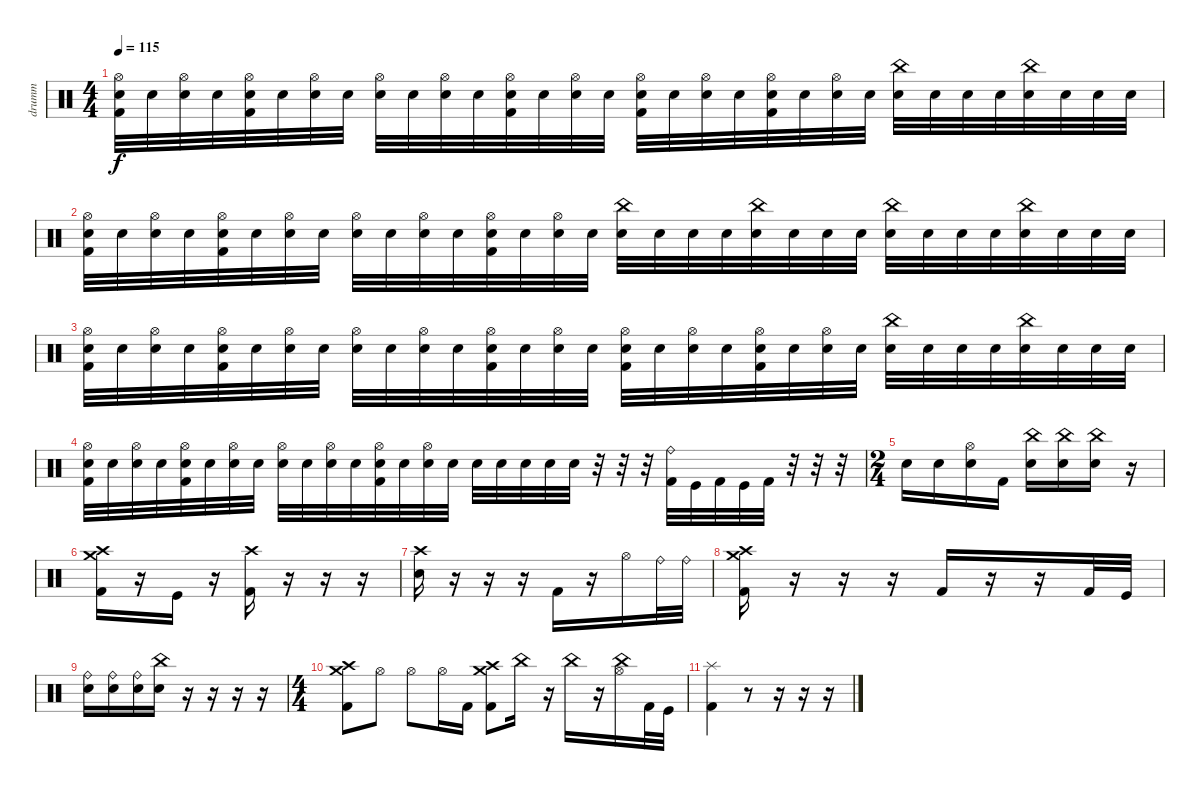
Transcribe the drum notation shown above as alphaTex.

\track ("drumm" "drumm") {instrument percussion}
\staff
\articulation defaults
\ts (4 4)
\tempo 115
\clef neutral
\ks c
("Electric Snare (hit)" "Hi-Hat (open)" "Kick (hit) 2").32{dy f} "Electric Snare (hit)".32 ("Electric Snare (hit)" "Hi-Hat (open)").32 "Electric Snare (hit)".32 ("Electric Snare (hit)" "Hi-Hat (open)" "Kick (hit) 2").32 "Electric Snare (hit)".32 ("Electric Snare (hit)" "Hi-Hat (open)").32 "Electric Snare (hit)".32 ("Electric Snare (hit)" "Hi-Hat (open)").32 "Electric Snare (hit)".32 ("Electric Snare (hit)" "Hi-Hat (open)").32 "Electric Snare (hit)".32 ("Electric Snare (hit)" "Hi-Hat (open)" "Kick (hit) 2").32 "Electric Snare (hit)".32 ("Electric Snare (hit)" "Hi-Hat (open)").32 "Electric Snare (hit)".32 ("Electric Snare (hit)" "Hi-Hat (open)" "Kick (hit) 2").32 "Electric Snare (hit)".32 ("Electric Snare (hit)" "Hi-Hat (open)").32 "Electric Snare (hit)".32 ("Electric Snare (hit)" "Hi-Hat (open)" "Kick (hit) 2").32 "Electric Snare (hit)".32 ("Electric Snare (hit)" "Hi-Hat (open)").32 "Electric Snare (hit)".32 ("Electric Snare (hit)" "China (hit)").32 "Electric Snare (hit)".32 "Electric Snare (hit)".32 "Electric Snare (hit)".32 ("Electric Snare (hit)" "China (hit)").32 "Electric Snare (hit)".32 "Electric Snare (hit)".32 "Electric Snare (hit)".32 |
("Electric Snare (hit)" "Hi-Hat (open)" "Kick (hit) 2").32 "Electric Snare (hit)".32 ("Electric Snare (hit)" "Hi-Hat (open)").32 "Electric Snare (hit)".32 ("Electric Snare (hit)" "Hi-Hat (open)" "Kick (hit) 2").32 "Electric Snare (hit)".32 ("Electric Snare (hit)" "Hi-Hat (open)").32 "Electric Snare (hit)".32 ("Electric Snare (hit)" "Hi-Hat (open)").32 "Electric Snare (hit)".32 ("Electric Snare (hit)" "Hi-Hat (open)").32 "Electric Snare (hit)".32 ("Electric Snare (hit)" "Hi-Hat (open)" "Kick (hit) 2").32 "Electric Snare (hit)".32 ("Electric Snare (hit)" "Hi-Hat (open)").32 "Electric Snare (hit)".32 ("Electric Snare (hit)" "China (hit)").32 "Electric Snare (hit)".32 "Electric Snare (hit)".32 "Electric Snare (hit)".32 ("Electric Snare (hit)" "China (hit)").32 "Electric Snare (hit)".32 "Electric Snare (hit)".32 "Electric Snare (hit)".32 ("Electric Snare (hit)" "China (hit)").32 "Electric Snare (hit)".32 "Electric Snare (hit)".32 "Electric Snare (hit)".32 ("Electric Snare (hit)" "China (hit)").32 "Electric Snare (hit)".32 "Electric Snare (hit)".32 "Electric Snare (hit)".32 |
("Electric Snare (hit)" "Hi-Hat (open)" "Kick (hit) 2").32 "Electric Snare (hit)".32 ("Electric Snare (hit)" "Hi-Hat (open)").32 "Electric Snare (hit)".32 ("Electric Snare (hit)" "Hi-Hat (open)" "Kick (hit) 2").32 "Electric Snare (hit)".32 ("Electric Snare (hit)" "Hi-Hat (open)").32 "Electric Snare (hit)".32 ("Electric Snare (hit)" "Hi-Hat (open)").32 "Electric Snare (hit)".32 ("Electric Snare (hit)" "Hi-Hat (open)").32 "Electric Snare (hit)".32 ("Electric Snare (hit)" "Hi-Hat (open)" "Kick (hit) 2").32 "Electric Snare (hit)".32 ("Electric Snare (hit)" "Hi-Hat (open)").32 "Electric Snare (hit)".32 ("Electric Snare (hit)" "Hi-Hat (open)" "Kick (hit) 2").32 "Electric Snare (hit)".32 ("Electric Snare (hit)" "Hi-Hat (open)").32 "Electric Snare (hit)".32 ("Electric Snare (hit)" "Hi-Hat (open)" "Kick (hit) 2").32 "Electric Snare (hit)".32 ("Electric Snare (hit)" "Hi-Hat (open)").32 "Electric Snare (hit)".32 ("Electric Snare (hit)" "China (hit)").32 "Electric Snare (hit)".32 "Electric Snare (hit)".32 "Electric Snare (hit)".32 ("Electric Snare (hit)" "China (hit)").32 "Electric Snare (hit)".32 "Electric Snare (hit)".32 "Electric Snare (hit)".32 |
("Electric Snare (hit)" "Hi-Hat (open)" "Kick (hit) 2").32 "Electric Snare (hit)".32 ("Electric Snare (hit)" "Hi-Hat (open)").32 "Electric Snare (hit)".32 ("Electric Snare (hit)" "Hi-Hat (open)" "Kick (hit) 2").32 "Electric Snare (hit)".32 ("Electric Snare (hit)" "Hi-Hat (open)").32 "Electric Snare (hit)".32 ("Electric Snare (hit)" "Hi-Hat (open)").32 "Electric Snare (hit)".32 ("Electric Snare (hit)" "Hi-Hat (open)").32 "Electric Snare (hit)".32 ("Electric Snare (hit)" "Hi-Hat (open)" "Kick (hit) 2").32 "Electric Snare (hit)".32 ("Electric Snare (hit)" "Hi-Hat (open)").32 "Electric Snare (hit)".32 "Electric Snare (hit)".32 "Electric Snare (hit)".32 "Electric Snare (hit)".32 "Electric Snare (hit)".32 "Electric Snare (hit)".32 r.32 r.32 r.32 ("Kick (hit) 2" "Ride (bell)").32 "Kick (hit)".32 "Kick (hit) 2".32 "Kick (hit)".32 "Kick (hit) 2".32 r.32 r.32 r.32 |
\ts (2 4)
"Electric Snare (hit)".16 "Electric Snare (hit)".16 ("Electric Snare (hit)" "Hi-Hat (open)").16 "Kick (hit) 2".16 ("Electric Snare (hit)" "China (hit)").16 ("Electric Snare (hit)" "China (hit)").16 ("Electric Snare (hit)" "China (hit)").16 r.16 |
("Kick (hit) 2" "Crash medium (hit)" "Crash high (hit)").16 r.16 "Kick (hit)".16 r.16 ("Kick (hit) 2" "Crash high (hit)").16 r.16 r.16 r.16 |
("Electric Snare (hit)" "Crash high (hit)").16 r.16 r.16 r.16 "Kick (hit) 2".16 r.16 "Hi-Hat (open)".16 "Ride (bell)".32 "Ride (bell)".32 |
("Kick (hit) 2" "Crash high (hit)" "Crash medium (hit)").16 r.16 r.16 r.16 "Kick (hit) 2".16 r.16 r.16 "Kick (hit) 2".32 "Kick (hit)".32 |
("Electric Snare (hit)" "Ride (bell)").16 ("Electric Snare (hit)" "Ride (bell)").16 ("Electric Snare (hit)" "Ride (bell)").16 ("Electric Snare (hit)" "China (hit)").16 r.16 r.16 r.16 r.16 |
\ts (4 4)
("Kick (hit) 2" "Crash medium (hit)" "Crash high (hit)").8 "Hi-Hat (open)".8 "Hi-Hat (open)".8 "Hi-Hat (open)".16 "Kick (hit) 2".16 ("Kick (hit) 2" "Crash medium (hit)" "Crash high (hit)").8 "China (hit)".16 r.16 "China (hit)".16 r.16 ("China (hit)" "Hi-Hat (open)").16 "Kick (hit) 2".32 "Kick (hit)".32 |
("Kick (hit) 2" "Splash (hit)").4 r.8 r.16 r.16 r.16
